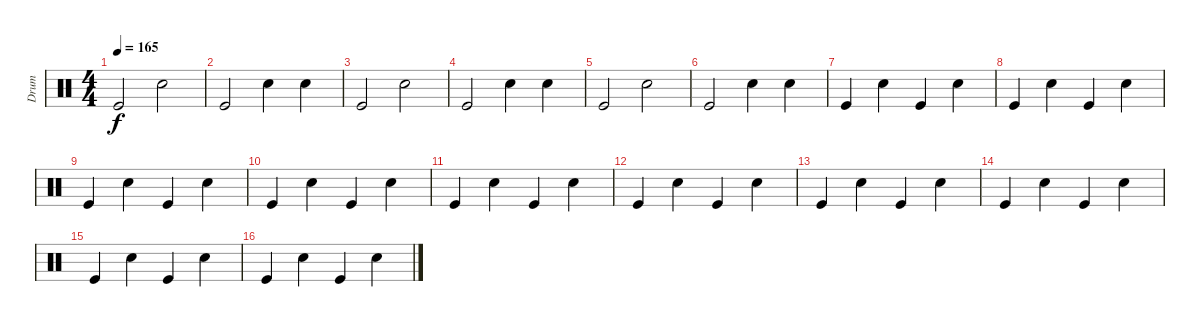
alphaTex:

\track ("Drum" "Drum") {instrument percussion}
\staff {score}
\articulation defaults
\ts (4 4)
\tempo 165
\clef neutral
\ks c "Kick (hit)".2{dy f} "Electric Snare (hit)".2
|
"Kick (hit)".2 "Electric Snare (hit)".4 "Electric Snare (hit)".4 |
"Kick (hit)".2 "Electric Snare (hit)".2 |
"Kick (hit)".2 "Electric Snare (hit)".4 "Electric Snare (hit)".4 |
"Kick (hit)".2 "Electric Snare (hit)".2 |
"Kick (hit)".2 "Electric Snare (hit)".4 "Electric Snare (hit)".4 |
"Kick (hit)".4 "Electric Snare (hit)".4 "Kick (hit)".4 "Electric Snare (hit)".4 |
"Kick (hit)".4 "Electric Snare (hit)".4 "Kick (hit)".4 "Electric Snare (hit)".4 |
"Kick (hit)".4 "Electric Snare (hit)".4 "Kick (hit)".4 "Electric Snare (hit)".4 |
"Kick (hit)".4 "Electric Snare (hit)".4 "Kick (hit)".4 "Electric Snare (hit)".4 |
"Kick (hit)".4 "Electric Snare (hit)".4 "Kick (hit)".4 "Electric Snare (hit)".4 |
"Kick (hit)".4 "Electric Snare (hit)".4 "Kick (hit)".4 "Electric Snare (hit)".4 |
"Kick (hit)".4 "Electric Snare (hit)".4 "Kick (hit)".4 "Electric Snare (hit)".4 |
"Kick (hit)".4 "Electric Snare (hit)".4 "Kick (hit)".4 "Electric Snare (hit)".4 |
"Kick (hit)".4 "Electric Snare (hit)".4 "Kick (hit)".4 "Electric Snare (hit)".4 |
"Kick (hit)".4 "Electric Snare (hit)".4 "Kick (hit)".4 "Electric Snare (hit)".4
